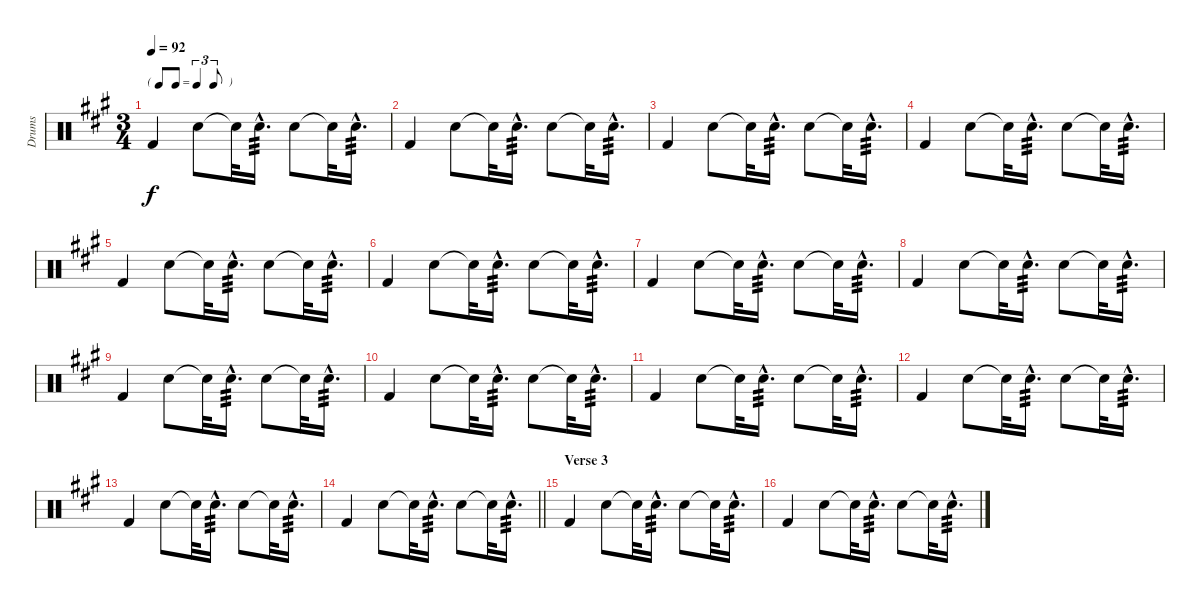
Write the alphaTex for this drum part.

\track ("Drums" "Drums") {instrument percussion}
\staff {score}
\articulation defaults
\ts (3 4)
\tf triplet8th
\tempo 92
\clef neutral
\ks a "Kick (hit) 2".4{dy f} "Snare (hit) 2".8{balance 0} "Snare (hit) 2"{t}.32 "Snare (hit) 2"{hac}.16{d tp 3 balance 16} "Snare (hit) 2".8{balance 0} "Snare (hit) 2"{t}.32 "Snare (hit) 2"{hac}.16{d tp 3 balance 16}
|
"Kick (hit) 2".4 "Snare (hit) 2".8{balance 0} "Snare (hit) 2"{t}.32 "Snare (hit) 2"{hac}.16{d tp 3 balance 16} "Snare (hit) 2".8{balance 0} "Snare (hit) 2"{t}.32 "Snare (hit) 2"{hac}.16{d tp 3 balance 16} |
"Kick (hit) 2".4 "Snare (hit) 2".8{balance 0} "Snare (hit) 2"{t}.32 "Snare (hit) 2"{hac}.16{d tp 3 balance 16} "Snare (hit) 2".8{balance 0} "Snare (hit) 2"{t}.32 "Snare (hit) 2"{hac}.16{d tp 3 balance 16} |
"Kick (hit) 2".4 "Snare (hit) 2".8{balance 0} "Snare (hit) 2"{t}.32 "Snare (hit) 2"{hac}.16{d tp 3 balance 16} "Snare (hit) 2".8{balance 0} "Snare (hit) 2"{t}.32 "Snare (hit) 2"{hac}.16{d tp 3 balance 16} |
"Kick (hit) 2".4 "Snare (hit) 2".8{balance 0} "Snare (hit) 2"{t}.32 "Snare (hit) 2"{hac}.16{d tp 3 balance 16} "Snare (hit) 2".8{balance 0} "Snare (hit) 2"{t}.32 "Snare (hit) 2"{hac}.16{d tp 3 balance 16} |
"Kick (hit) 2".4 "Snare (hit) 2".8{balance 0} "Snare (hit) 2"{t}.32 "Snare (hit) 2"{hac}.16{d tp 3 balance 16} "Snare (hit) 2".8{balance 0} "Snare (hit) 2"{t}.32 "Snare (hit) 2"{hac}.16{d tp 3 balance 16} |
"Kick (hit) 2".4 "Snare (hit) 2".8{balance 0} "Snare (hit) 2"{t}.32 "Snare (hit) 2"{hac}.16{d tp 3 balance 16} "Snare (hit) 2".8{balance 0} "Snare (hit) 2"{t}.32 "Snare (hit) 2"{hac}.16{d tp 3 balance 16} |
"Kick (hit) 2".4 "Snare (hit) 2".8{balance 0} "Snare (hit) 2"{t}.32 "Snare (hit) 2"{hac}.16{d tp 3 balance 16} "Snare (hit) 2".8{balance 0} "Snare (hit) 2"{t}.32 "Snare (hit) 2"{hac}.16{d tp 3 balance 16} |
"Kick (hit) 2".4 "Snare (hit) 2".8{balance 0} "Snare (hit) 2"{t}.32 "Snare (hit) 2"{hac}.16{d tp 3 balance 16} "Snare (hit) 2".8{balance 0} "Snare (hit) 2"{t}.32 "Snare (hit) 2"{hac}.16{d tp 3 balance 16} |
"Kick (hit) 2".4 "Snare (hit) 2".8{balance 0} "Snare (hit) 2"{t}.32 "Snare (hit) 2"{hac}.16{d tp 3 balance 16} "Snare (hit) 2".8{balance 0} "Snare (hit) 2"{t}.32 "Snare (hit) 2"{hac}.16{d tp 3 balance 16} |
"Kick (hit) 2".4 "Snare (hit) 2".8{balance 0} "Snare (hit) 2"{t}.32 "Snare (hit) 2"{hac}.16{d tp 3 balance 16} "Snare (hit) 2".8{balance 0} "Snare (hit) 2"{t}.32 "Snare (hit) 2"{hac}.16{d tp 3 balance 16} |
"Kick (hit) 2".4 "Snare (hit) 2".8{balance 0} "Snare (hit) 2"{t}.32 "Snare (hit) 2"{hac}.16{d tp 3 balance 16} "Snare (hit) 2".8{balance 0} "Snare (hit) 2"{t}.32 "Snare (hit) 2"{hac}.16{d tp 3 balance 16} |
"Kick (hit) 2".4 "Snare (hit) 2".8{balance 0} "Snare (hit) 2"{t}.32 "Snare (hit) 2"{hac}.16{d tp 3 balance 16} "Snare (hit) 2".8{balance 0} "Snare (hit) 2"{t}.32 "Snare (hit) 2"{hac}.16{d tp 3 balance 16} |
\barLineRight lightlight "Kick (hit) 2".4 "Snare (hit) 2".8{balance 0} "Snare (hit) 2"{t}.32 "Snare (hit) 2"{hac}.16{d tp 3 balance 16} "Snare (hit) 2".8{balance 0} "Snare (hit) 2"{t}.32 "Snare (hit) 2"{hac}.16{d tp 3 balance 16}
|
\section ("" "Verse 3")
"Kick (hit) 2".4 "Snare (hit) 2".8{balance 0} "Snare (hit) 2"{t}.32 "Snare (hit) 2"{hac}.16{d tp 3 balance 16} "Snare (hit) 2".8{balance 0} "Snare (hit) 2"{t}.32 "Snare (hit) 2"{hac}.16{d tp 3 balance 16} |
"Kick (hit) 2".4 "Snare (hit) 2".8{balance 0} "Snare (hit) 2"{t}.32 "Snare (hit) 2"{hac}.16{d tp 3 balance 16} "Snare (hit) 2".8{balance 0} "Snare (hit) 2"{t}.32 "Snare (hit) 2"{hac}.16{d tp 3 balance 16}
